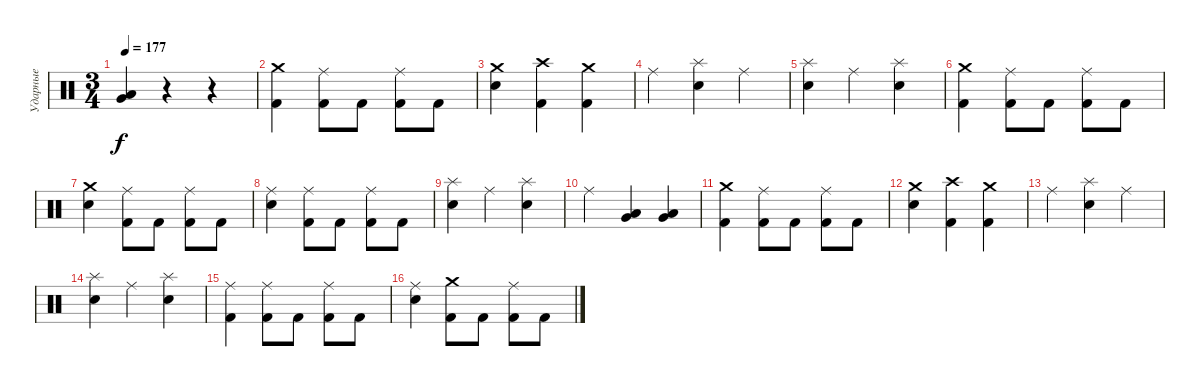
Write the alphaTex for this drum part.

\track ("Ударные" "Ударные") {instrument percussion}
\staff {score}
\articulation defaults
\ts (3 4)
\tempo 177
\clef neutral
\ks c
("Low Tom (hit)" "Very Low Tom (hit)").4{dy f} r.4 r.4 |
("Crash medium (hit)" "Kick (hit) 2").4 ("Ride (middle)" "Kick (hit) 2").8 "Kick (hit) 2".8 ("Ride (middle)" "Kick (hit) 2").8 "Kick (hit) 2".8 |
("Crash medium (hit)" "Snare (hit) 2").4 ("Crash high (hit)" "Kick (hit) 2").4 ("Crash medium (hit)" "Kick (hit) 2").4 |
"Ride (middle)".4 ("Splash (hit)" "Snare (hit) 2").4 "Ride (middle)".4 |
("Splash (hit)" "Snare (hit) 2").4 "Ride (middle)".4 ("Splash (hit)" "Snare (hit) 2").4 |
("Crash medium (hit)" "Kick (hit) 2").4 ("Ride (middle)" "Kick (hit) 2").8 "Kick (hit) 2".8 ("Ride (middle)" "Kick (hit) 2").8 "Kick (hit) 2".8 |
("Crash medium (hit)" "Snare (hit) 2").4 ("Ride (middle)" "Kick (hit) 2").8 "Kick (hit) 2".8 ("Ride (middle)" "Kick (hit) 2").8 "Kick (hit) 2".8 |
("Ride (middle)" "Snare (hit) 2").4 ("Ride (middle)" "Kick (hit) 2").8 "Kick (hit) 2".8 ("Ride (middle)" "Kick (hit) 2").8 "Kick (hit) 2".8 |
("Splash (hit)" "Snare (hit) 2").4 "Ride (middle)".4 ("Splash (hit)" "Snare (hit) 2").4 |
"Ride (middle)".4 ("Low Tom (hit)" "Very Low Tom (hit)").4 ("Low Tom (hit)" "Very Low Tom (hit)").4 |
("Crash medium (hit)" "Kick (hit) 2").4 ("Ride (middle)" "Kick (hit) 2").8 "Kick (hit) 2".8 ("Ride (middle)" "Kick (hit) 2").8 "Kick (hit) 2".8 |
("Crash medium (hit)" "Snare (hit) 2").4 ("Crash high (hit)" "Kick (hit) 2").4 ("Crash medium (hit)" "Kick (hit) 2").4 |
"Ride (middle)".4 ("Splash (hit)" "Snare (hit) 2").4 "Ride (middle)".4 |
("Splash (hit)" "Snare (hit) 2").4 "Ride (middle)".4 ("Splash (hit)" "Snare (hit) 2").4 |
("Ride (middle)" "Kick (hit) 2").4 ("Ride (middle)" "Kick (hit) 2").8 "Kick (hit) 2".8 ("Ride (middle)" "Kick (hit) 2").8 "Kick (hit) 2".8 |
("Ride (middle)" "Snare (hit) 2").4 ("Crash medium (hit)" "Kick (hit) 2").8 "Kick (hit) 2".8 ("Ride (middle)" "Kick (hit) 2").8 "Kick (hit) 2".8
